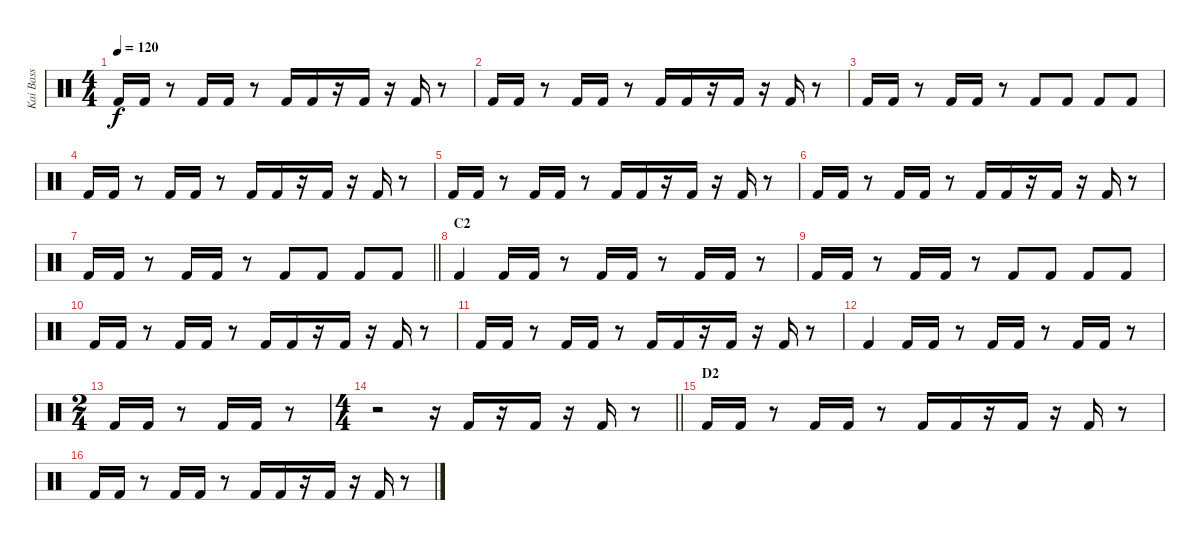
\track ("Kai Bass" "Kai Bass") {instrument percussion}
\staff {score}
\articulation defaults
\ts (4 4)
\tempo 120
\clef neutral
\ks c "Kick (hit) 2".16{dy f} "Kick (hit) 2".16
r.8 "Kick (hit) 2".16 "Kick (hit) 2".16 r.8 "Kick (hit) 2".16 "Kick (hit) 2".16 r.16 "Kick (hit) 2".16 r.16 "Kick (hit) 2".16 r.8 |
"Kick (hit) 2".16 "Kick (hit) 2".16 r.8 "Kick (hit) 2".16 "Kick (hit) 2".16 r.8 "Kick (hit) 2".16 "Kick (hit) 2".16 r.16 "Kick (hit) 2".16 r.16 "Kick (hit) 2".16 r.8 |
"Kick (hit) 2".16 "Kick (hit) 2".16 r.8 "Kick (hit) 2".16 "Kick (hit) 2".16 r.8 "Kick (hit) 2".8 "Kick (hit) 2".8 "Kick (hit) 2".8 "Kick (hit) 2".8 |
"Kick (hit) 2".16 "Kick (hit) 2".16 r.8 "Kick (hit) 2".16 "Kick (hit) 2".16 r.8 "Kick (hit) 2".16 "Kick (hit) 2".16 r.16 "Kick (hit) 2".16 r.16 "Kick (hit) 2".16 r.8 |
"Kick (hit) 2".16 "Kick (hit) 2".16 r.8 "Kick (hit) 2".16 "Kick (hit) 2".16 r.8 "Kick (hit) 2".16 "Kick (hit) 2".16 r.16 "Kick (hit) 2".16 r.16 "Kick (hit) 2".16 r.8 |
"Kick (hit) 2".16 "Kick (hit) 2".16 r.8 "Kick (hit) 2".16 "Kick (hit) 2".16 r.8 "Kick (hit) 2".16 "Kick (hit) 2".16 r.16 "Kick (hit) 2".16 r.16 "Kick (hit) 2".16 r.8 |
\barLineRight lightlight "Kick (hit) 2".16 "Kick (hit) 2".16
r.8 "Kick (hit) 2".16 "Kick (hit) 2".16 r.8 "Kick (hit) 2".8 "Kick (hit) 2".8 "Kick (hit) 2".8 "Kick (hit) 2".8 |
\section ("" "C2")
"Kick (hit) 2".4 "Kick (hit) 2".16 "Kick (hit) 2".16 r.8 "Kick (hit) 2".16 "Kick (hit) 2".16 r.8 "Kick (hit) 2".16 "Kick (hit) 2".16 r.8 |
"Kick (hit) 2".16 "Kick (hit) 2".16 r.8 "Kick (hit) 2".16 "Kick (hit) 2".16 r.8 "Kick (hit) 2".8 "Kick (hit) 2".8 "Kick (hit) 2".8 "Kick (hit) 2".8 |
"Kick (hit) 2".16 "Kick (hit) 2".16 r.8 "Kick (hit) 2".16 "Kick (hit) 2".16 r.8 "Kick (hit) 2".16 "Kick (hit) 2".16 r.16 "Kick (hit) 2".16 r.16 "Kick (hit) 2".16 r.8 |
"Kick (hit) 2".16 "Kick (hit) 2".16 r.8 "Kick (hit) 2".16 "Kick (hit) 2".16 r.8 "Kick (hit) 2".16 "Kick (hit) 2".16 r.16 "Kick (hit) 2".16 r.16 "Kick (hit) 2".16 r.8 |
"Kick (hit) 2".4 "Kick (hit) 2".16 "Kick (hit) 2".16 r.8 "Kick (hit) 2".16 "Kick (hit) 2".16 r.8 "Kick (hit) 2".16 "Kick (hit) 2".16 r.8 |
\ts (2 4)
"Kick (hit) 2".16 "Kick (hit) 2".16 r.8 "Kick (hit) 2".16 "Kick (hit) 2".16 r.8 |
\ts (4 4)
\barLineRight lightlight
r.2 r.16 "Kick (hit) 2".16 r.16 "Kick (hit) 2".16 r.16 "Kick (hit) 2".16 r.8 |
\section ("" "D2")
"Kick (hit) 2".16 "Kick (hit) 2".16 r.8 "Kick (hit) 2".16 "Kick (hit) 2".16 r.8 "Kick (hit) 2".16 "Kick (hit) 2".16 r.16 "Kick (hit) 2".16 r.16 "Kick (hit) 2".16 r.8 |
"Kick (hit) 2".16 "Kick (hit) 2".16 r.8 "Kick (hit) 2".16 "Kick (hit) 2".16 r.8 "Kick (hit) 2".16 "Kick (hit) 2".16 r.16 "Kick (hit) 2".16 r.16 "Kick (hit) 2".16 r.8
